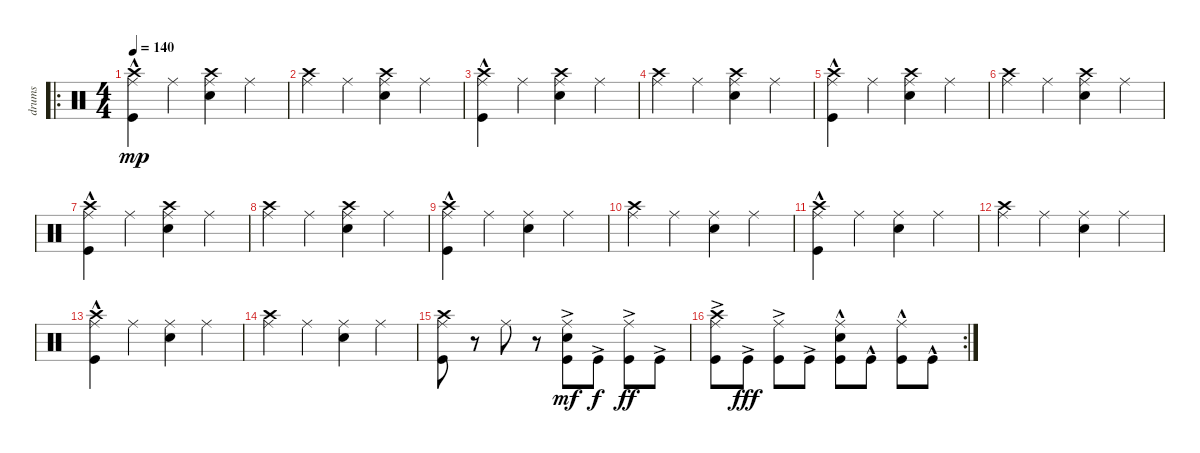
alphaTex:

\track ("drums" "drums") {instrument percussion}
\staff {score}
\articulation defaults
\ro
\ts (4 4)
\tempo 140
\clef neutral
\ks c
("Crash high (hit)"{hac} "Ride (middle)" "Kick (hit)").4{dy mp} "Ride (middle)".4 ("Crash high (hit)" "Ride (middle)" "Snare (hit) 2").4 "Ride (middle)".4 |
("Crash high (hit)" "Ride (middle)").4 "Ride (middle)".4 ("Crash high (hit)" "Ride (middle)" "Snare (hit) 2").4 "Ride (middle)".4 |
("Crash high (hit)"{hac} "Ride (middle)" "Kick (hit)").4 "Ride (middle)".4 ("Crash high (hit)" "Ride (middle)" "Snare (hit) 2").4 "Ride (middle)".4 |
("Crash high (hit)" "Ride (middle)").4 "Ride (middle)".4 ("Crash high (hit)" "Ride (middle)" "Snare (hit) 2").4 "Ride (middle)".4 |
("Crash high (hit)"{hac} "Ride (middle)" "Kick (hit)").4 "Ride (middle)".4 ("Crash high (hit)" "Ride (middle)" "Snare (hit) 2").4 "Ride (middle)".4 |
("Crash high (hit)" "Ride (middle)").4 "Ride (middle)".4 ("Crash high (hit)" "Ride (middle)" "Snare (hit) 2").4 "Ride (middle)".4 |
("Crash high (hit)"{hac} "Ride (middle)" "Kick (hit)").4 "Ride (middle)".4 ("Crash high (hit)" "Ride (middle)" "Snare (hit) 2").4 "Ride (middle)".4 |
("Crash high (hit)" "Ride (middle)").4 "Ride (middle)".4 ("Crash high (hit)" "Ride (middle)" "Snare (hit) 2").4 "Ride (middle)".4 |
("Crash high (hit)"{hac} "Ride (middle)" "Kick (hit)").4 "Ride (middle)".4 ("Ride (middle)" "Snare (hit) 2").4 "Ride (middle)".4 |
("Crash high (hit)" "Ride (middle)").4 "Ride (middle)".4 ("Ride (middle)" "Snare (hit) 2").4 "Ride (middle)".4 |
("Crash high (hit)"{hac} "Ride (middle)" "Kick (hit)").4 "Ride (middle)".4 ("Ride (middle)" "Snare (hit) 2").4 "Ride (middle)".4 |
("Crash high (hit)" "Ride (middle)").4 "Ride (middle)".4 ("Ride (middle)" "Snare (hit) 2").4 "Ride (middle)".4 |
("Crash high (hit)"{hac} "Ride (middle)" "Kick (hit)").4 "Ride (middle)".4 ("Ride (middle)" "Snare (hit) 2").4 "Ride (middle)".4 |
("Crash high (hit)" "Ride (middle)").4 "Ride (middle)".4 ("Ride (middle)" "Snare (hit) 2").4 "Ride (middle)".4 |
("Crash high (hit)" "Ride (middle)" "Kick (hit)").8 r.8 "Ride (middle)".8 r.8 ("Ride (middle)" "Snare (hit) 2" "Kick (hit)"{ac}).8{dy mf} "Kick (hit)"{ac}.8{dy f} ("Ride (middle)" "Kick (hit)"{ac}).8{dy ff} "Kick (hit)"{ac}.8 |
\rc 2
("Crash high (hit)" "Ride (middle)" "Kick (hit)"{ac}).8 "Kick (hit)"{ac}.8{dy fff} ("Ride (middle)" "Kick (hit)"{ac}).8 "Kick (hit)"{ac}.8 ("Ride (middle)" "Snare (hit) 2" "Kick (hit)"{hac}).8 "Kick (hit)"{hac}.8 ("Ride (middle)" "Kick (hit)"{hac}).8 "Kick (hit)"{hac}.8
